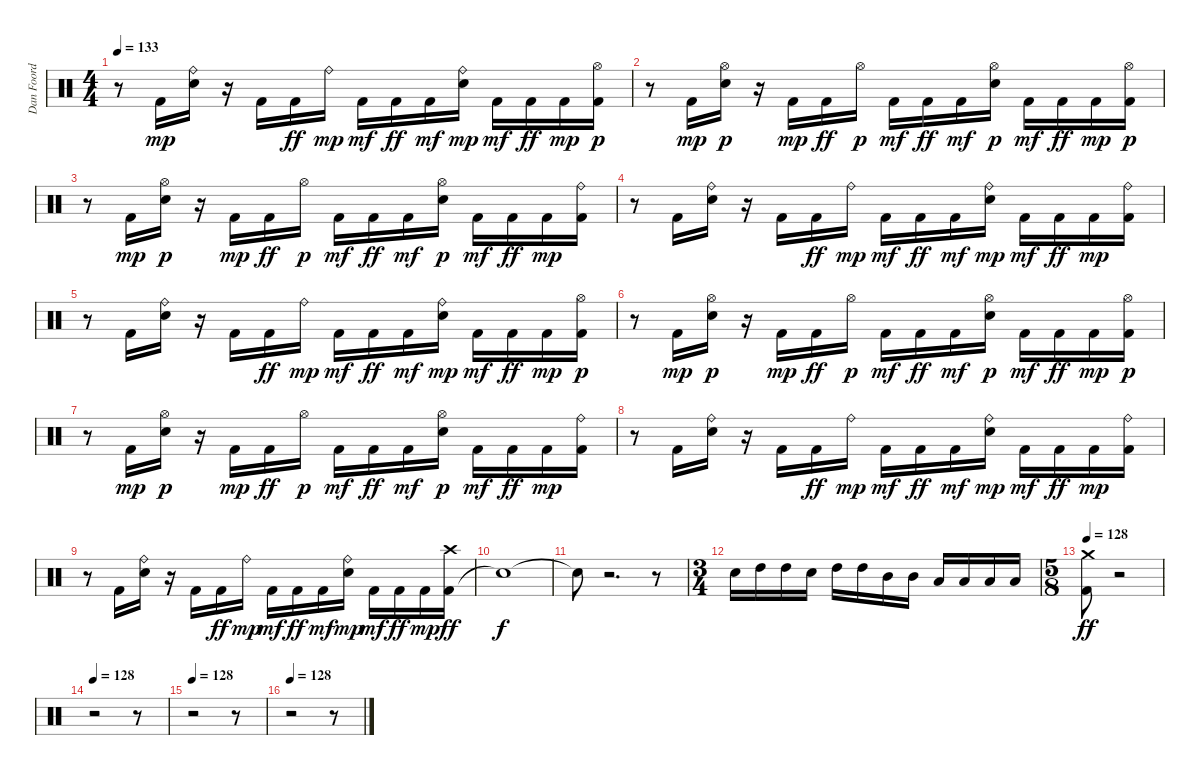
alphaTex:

\track ("Dan Foord 2" "Dan Foord ") {instrument percussion}
\staff {score}
\articulation defaults
\ts (4 4)
\tempo 133
\clef neutral
\ks c
r.8{dy mp} "Kick (hit) 2".16 ("Snare (hit) 2" "Ride (bell)").16 r.16 "Kick (hit) 2".16 "Kick (hit) 2".16{dy ff} "Ride (bell)".16{dy mp} "Kick (hit) 2".16{dy mf} "Kick (hit) 2".16{dy ff} "Kick (hit) 2".16{dy mf} ("Snare (hit) 2" "Ride (bell)").16{dy mp} "Kick (hit) 2".16{dy mf} "Kick (hit) 2".16{dy ff} "Kick (hit) 2".16{dy mp} ("Kick (hit) 2" "Hi-Hat (open)").16{dy p} |
r.8 "Kick (hit) 2".16{dy mp} ("Snare (hit) 2" "Hi-Hat (open)").16{dy p} r.16 "Kick (hit) 2".16{dy mp} "Kick (hit) 2".16{dy ff} "Hi-Hat (open)".16{dy p} "Kick (hit) 2".16{dy mf} "Kick (hit) 2".16{dy ff} "Kick (hit) 2".16{dy mf} ("Snare (hit) 2" "Hi-Hat (open)").16{dy p} "Kick (hit) 2".16{dy mf} "Kick (hit) 2".16{dy ff} "Kick (hit) 2".16{dy mp} ("Kick (hit) 2" "Hi-Hat (open)").16{dy p} |
r.8 "Kick (hit) 2".16{dy mp} ("Snare (hit) 2" "Hi-Hat (open)").16{dy p} r.16 "Kick (hit) 2".16{dy mp} "Kick (hit) 2".16{dy ff} "Hi-Hat (open)".16{dy p} "Kick (hit) 2".16{dy mf} "Kick (hit) 2".16{dy ff} "Kick (hit) 2".16{dy mf} ("Snare (hit) 2" "Hi-Hat (open)").16{dy p} "Kick (hit) 2".16{dy mf} "Kick (hit) 2".16{dy ff} "Kick (hit) 2".16{dy mp} ("Kick (hit) 2" "Ride (bell)").16 |
r.8 "Kick (hit) 2".16 ("Snare (hit) 2" "Ride (bell)").16 r.16 "Kick (hit) 2".16 "Kick (hit) 2".16{dy ff} "Ride (bell)".16{dy mp} "Kick (hit) 2".16{dy mf} "Kick (hit) 2".16{dy ff} "Kick (hit) 2".16{dy mf} ("Snare (hit) 2" "Ride (bell)").16{dy mp} "Kick (hit) 2".16{dy mf} "Kick (hit) 2".16{dy ff} "Kick (hit) 2".16{dy mp} ("Kick (hit) 2" "Ride (bell)").16 |
r.8 "Kick (hit) 2".16 ("Snare (hit) 2" "Ride (bell)").16 r.16 "Kick (hit) 2".16 "Kick (hit) 2".16{dy ff} "Ride (bell)".16{dy mp} "Kick (hit) 2".16{dy mf} "Kick (hit) 2".16{dy ff} "Kick (hit) 2".16{dy mf} ("Snare (hit) 2" "Ride (bell)").16{dy mp} "Kick (hit) 2".16{dy mf} "Kick (hit) 2".16{dy ff} "Kick (hit) 2".16{dy mp} ("Kick (hit) 2" "Hi-Hat (open)").16{dy p} |
r.8 "Kick (hit) 2".16{dy mp} ("Snare (hit) 2" "Hi-Hat (open)").16{dy p} r.16 "Kick (hit) 2".16{dy mp} "Kick (hit) 2".16{dy ff} "Hi-Hat (open)".16{dy p} "Kick (hit) 2".16{dy mf} "Kick (hit) 2".16{dy ff} "Kick (hit) 2".16{dy mf} ("Snare (hit) 2" "Hi-Hat (open)").16{dy p} "Kick (hit) 2".16{dy mf} "Kick (hit) 2".16{dy ff} "Kick (hit) 2".16{dy mp} ("Kick (hit) 2" "Hi-Hat (open)").16{dy p} |
r.8 "Kick (hit) 2".16{dy mp} ("Snare (hit) 2" "Hi-Hat (open)").16{dy p} r.16 "Kick (hit) 2".16{dy mp} "Kick (hit) 2".16{dy ff} "Hi-Hat (open)".16{dy p} "Kick (hit) 2".16{dy mf} "Kick (hit) 2".16{dy ff} "Kick (hit) 2".16{dy mf} ("Snare (hit) 2" "Hi-Hat (open)").16{dy p} "Kick (hit) 2".16{dy mf} "Kick (hit) 2".16{dy ff} "Kick (hit) 2".16{dy mp} ("Kick (hit) 2" "Ride (bell)").16 |
r.8 "Kick (hit) 2".16 ("Snare (hit) 2" "Ride (bell)").16 r.16 "Kick (hit) 2".16 "Kick (hit) 2".16{dy ff} "Ride (bell)".16{dy mp} "Kick (hit) 2".16{dy mf} "Kick (hit) 2".16{dy ff} "Kick (hit) 2".16{dy mf} ("Snare (hit) 2" "Ride (bell)").16{dy mp} "Kick (hit) 2".16{dy mf} "Kick (hit) 2".16{dy ff} "Kick (hit) 2".16{dy mp} ("Kick (hit) 2" "Ride (bell)").16 |
r.8 "Kick (hit) 2".16 ("Snare (hit) 2" "Ride (bell)").16 r.16 "Kick (hit) 2".16 "Kick (hit) 2".16{dy ff} "Ride (bell)".16{dy mp} "Kick (hit) 2".16{dy mf} "Kick (hit) 2".16{dy ff} "Kick (hit) 2".16{dy mf} ("Snare (hit) 2" "Ride (bell)").16{dy mp} "Kick (hit) 2".16{dy mf} "Kick (hit) 2".16{dy ff} "Kick (hit) 2".16{dy mp} ("Kick (hit) 2" "Crash high (hit)").16{dy ff} |
"Snare (hit)"{t}.1{dy f} |
"Snare (hit)"{t}.8 r.2{d} r.8 |
\ts (3 4)
"Snare (hit) 2".16 "High Tom (hit)".16 "High Tom (hit)".16 "Snare (hit) 2".16 "High Tom (hit)".16 "High Tom (hit)".16 "Mid Tom (hit)".16 "Mid Tom (hit)".16 "Low Tom (hit)".16 "Low Tom (hit)".16 "Low Floor Tom (hit)".16 "Low Floor Tom (hit)".16 |
\ts (5 8)
\tempo 128
("Kick (hit) 2" "Crash medium (hit)").8{dy ff} r.2 |
\tempo 128
r.2 r.8 |
\tempo 128
r.2 r.8 |
\tempo 128
r.2 r.8
